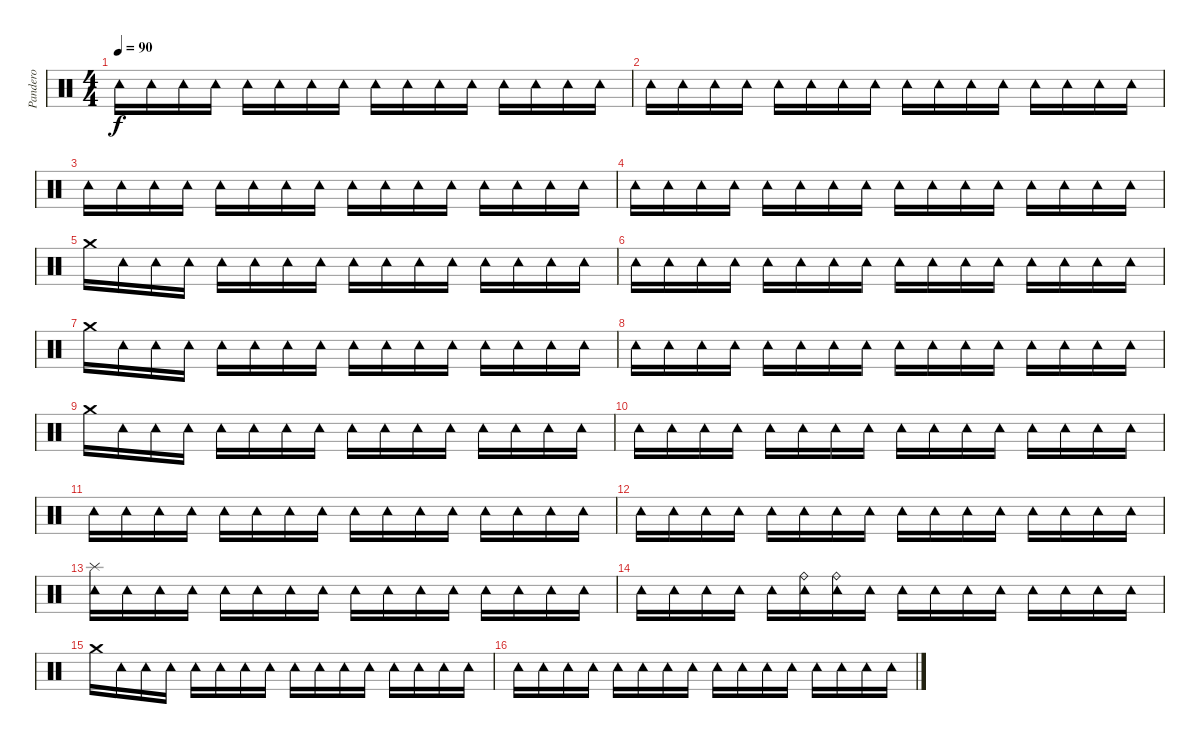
\track ("Pandero" "Pandero") {instrument percussion}
\staff {score}
\articulation defaults
\ts (4 4)
\tempo 90
\clef neutral
\ks c "Tambourine (hit)".16{dy f} "Tambourine (hit)".16 "Tambourine (hit)".16 "Tambourine (hit)".16 "Tambourine (hit)".16 "Tambourine (hit)".16 "Tambourine (hit)".16 "Tambourine (hit)".16 "Tambourine (hit)".16 "Tambourine (hit)".16 "Tambourine (hit)".16 "Tambourine (hit)".16 "Tambourine (hit)".16 "Tambourine (hit)".16 "Tambourine (hit)".16 "Tambourine (hit)".16
|
"Tambourine (hit)".16 "Tambourine (hit)".16 "Tambourine (hit)".16 "Tambourine (hit)".16 "Tambourine (hit)".16 "Tambourine (hit)".16 "Tambourine (hit)".16 "Tambourine (hit)".16 "Tambourine (hit)".16 "Tambourine (hit)".16 "Tambourine (hit)".16 "Tambourine (hit)".16 "Tambourine (hit)".16 "Tambourine (hit)".16 "Tambourine (hit)".16 "Tambourine (hit)".16 |
"Tambourine (hit)".16 "Tambourine (hit)".16 "Tambourine (hit)".16 "Tambourine (hit)".16 "Tambourine (hit)".16 "Tambourine (hit)".16 "Tambourine (hit)".16 "Tambourine (hit)".16 "Tambourine (hit)".16 "Tambourine (hit)".16 "Tambourine (hit)".16 "Tambourine (hit)".16 "Tambourine (hit)".16 "Tambourine (hit)".16 "Tambourine (hit)".16 "Tambourine (hit)".16 |
"Tambourine (hit)".16 "Tambourine (hit)".16 "Tambourine (hit)".16 "Tambourine (hit)".16 "Tambourine (hit)".16 "Tambourine (hit)".16 "Tambourine (hit)".16 "Tambourine (hit)".16 "Tambourine (hit)".16 "Tambourine (hit)".16 "Tambourine (hit)".16 "Tambourine (hit)".16 "Tambourine (hit)".16 "Tambourine (hit)".16 "Tambourine (hit)".16 "Tambourine (hit)".16 |
"Crash medium (hit)".16 "Tambourine (hit)".16 "Tambourine (hit)".16 "Tambourine (hit)".16 "Tambourine (hit)".16 "Tambourine (hit)".16 "Tambourine (hit)".16 "Tambourine (hit)".16 "Tambourine (hit)".16 "Tambourine (hit)".16 "Tambourine (hit)".16 "Tambourine (hit)".16 "Tambourine (hit)".16 "Tambourine (hit)".16 "Tambourine (hit)".16 "Tambourine (hit)".16 |
"Tambourine (hit)".16 "Tambourine (hit)".16 "Tambourine (hit)".16 "Tambourine (hit)".16 "Tambourine (hit)".16 "Tambourine (hit)".16 "Tambourine (hit)".16 "Tambourine (hit)".16 "Tambourine (hit)".16 "Tambourine (hit)".16 "Tambourine (hit)".16 "Tambourine (hit)".16 "Tambourine (hit)".16 "Tambourine (hit)".16 "Tambourine (hit)".16 "Tambourine (hit)".16 |
"Crash medium (hit)".16 "Tambourine (hit)".16 "Tambourine (hit)".16 "Tambourine (hit)".16 "Tambourine (hit)".16 "Tambourine (hit)".16 "Tambourine (hit)".16 "Tambourine (hit)".16 "Tambourine (hit)".16 "Tambourine (hit)".16 "Tambourine (hit)".16 "Tambourine (hit)".16 "Tambourine (hit)".16 "Tambourine (hit)".16 "Tambourine (hit)".16 "Tambourine (hit)".16 |
"Tambourine (hit)".16 "Tambourine (hit)".16 "Tambourine (hit)".16 "Tambourine (hit)".16 "Tambourine (hit)".16 "Tambourine (hit)".16 "Tambourine (hit)".16 "Tambourine (hit)".16 "Tambourine (hit)".16 "Tambourine (hit)".16 "Tambourine (hit)".16 "Tambourine (hit)".16 "Tambourine (hit)".16 "Tambourine (hit)".16 "Tambourine (hit)".16 "Tambourine (hit)".16 |
"Crash medium (hit)".16 "Tambourine (hit)".16 "Tambourine (hit)".16 "Tambourine (hit)".16 "Tambourine (hit)".16 "Tambourine (hit)".16 "Tambourine (hit)".16 "Tambourine (hit)".16 "Tambourine (hit)".16 "Tambourine (hit)".16 "Tambourine (hit)".16 "Tambourine (hit)".16 "Tambourine (hit)".16 "Tambourine (hit)".16 "Tambourine (hit)".16 "Tambourine (hit)".16 |
"Tambourine (hit)".16 "Tambourine (hit)".16 "Tambourine (hit)".16 "Tambourine (hit)".16 "Tambourine (hit)".16 "Tambourine (hit)".16 "Tambourine (hit)".16 "Tambourine (hit)".16 "Tambourine (hit)".16 "Tambourine (hit)".16 "Tambourine (hit)".16 "Tambourine (hit)".16 "Tambourine (hit)".16 "Tambourine (hit)".16 "Tambourine (hit)".16 "Tambourine (hit)".16 |
"Tambourine (hit)".16 "Tambourine (hit)".16 "Tambourine (hit)".16 "Tambourine (hit)".16 "Tambourine (hit)".16 "Tambourine (hit)".16 "Tambourine (hit)".16 "Tambourine (hit)".16 "Tambourine (hit)".16 "Tambourine (hit)".16 "Tambourine (hit)".16 "Tambourine (hit)".16 "Tambourine (hit)".16 "Tambourine (hit)".16 "Tambourine (hit)".16 "Tambourine (hit)".16 |
"Tambourine (hit)".16 "Tambourine (hit)".16 "Tambourine (hit)".16 "Tambourine (hit)".16 "Tambourine (hit)".16 "Tambourine (hit)".16 "Tambourine (hit)".16 "Tambourine (hit)".16 "Tambourine (hit)".16 "Tambourine (hit)".16 "Tambourine (hit)".16 "Tambourine (hit)".16 "Tambourine (hit)".16 "Tambourine (hit)".16 "Tambourine (hit)".16 "Tambourine (hit)".16 |
("Tambourine (hit)" "Splash (hit)").16 "Tambourine (hit)".16 "Tambourine (hit)".16 "Tambourine (hit)".16 "Tambourine (hit)".16 "Tambourine (hit)".16 "Tambourine (hit)".16 "Tambourine (hit)".16 "Tambourine (hit)".16 "Tambourine (hit)".16 "Tambourine (hit)".16 "Tambourine (hit)".16 "Tambourine (hit)".16 "Tambourine (hit)".16 "Tambourine (hit)".16 "Tambourine (hit)".16 |
"Tambourine (hit)".16 "Tambourine (hit)".16 "Tambourine (hit)".16 "Tambourine (hit)".16 "Tambourine (hit)".16 ("Ride (bell)" "Tambourine (hit)").16 ("Tambourine (hit)" "Ride (bell)").16 "Tambourine (hit)".16 "Tambourine (hit)".16 "Tambourine (hit)".16 "Tambourine (hit)".16 "Tambourine (hit)".16 "Tambourine (hit)".16 "Tambourine (hit)".16 "Tambourine (hit)".16 "Tambourine (hit)".16 |
"Crash medium (hit)".16 "Tambourine (hit)".16 "Tambourine (hit)".16 "Tambourine (hit)".16 "Tambourine (hit)".16 "Tambourine (hit)".16 "Tambourine (hit)".16 "Tambourine (hit)".16 "Tambourine (hit)".16 "Tambourine (hit)".16 "Tambourine (hit)".16 "Tambourine (hit)".16 "Tambourine (hit)".16 "Tambourine (hit)".16 "Tambourine (hit)".16 "Tambourine (hit)".16 |
"Tambourine (hit)".16 "Tambourine (hit)".16 "Tambourine (hit)".16 "Tambourine (hit)".16 "Tambourine (hit)".16 "Tambourine (hit)".16 "Tambourine (hit)".16 "Tambourine (hit)".16 "Tambourine (hit)".16 "Tambourine (hit)".16 "Tambourine (hit)".16 "Tambourine (hit)".16 "Tambourine (hit)".16 "Tambourine (hit)".16 "Tambourine (hit)".16 "Tambourine (hit)".16
